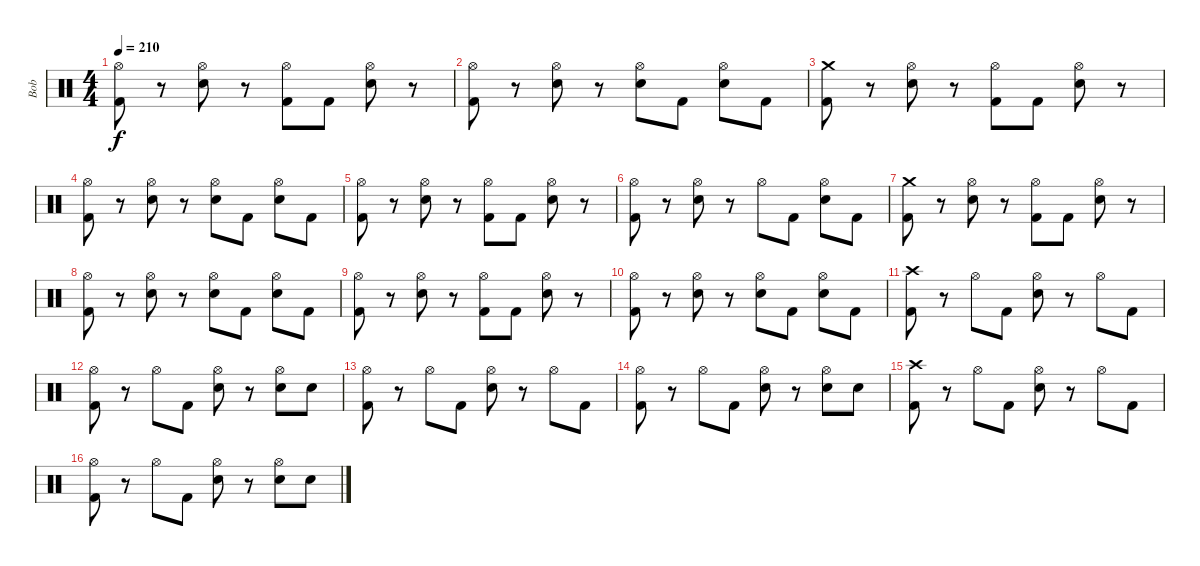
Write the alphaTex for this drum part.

\track ("Bob" "Bob") {instrument percussion}
\staff {score}
\articulation defaults
\ts (4 4)
\tempo 210
\clef neutral
\ks c
("Hi-Hat (open)" "Kick (hit) 2").8{dy f} r.8 ("Hi-Hat (open)" "Electric Snare (hit)").8 r.8 ("Hi-Hat (open)" "Kick (hit) 2").8 "Kick (hit) 2".8 ("Hi-Hat (open)" "Electric Snare (hit)").8 r.8 |
("Hi-Hat (open)" "Kick (hit) 2").8 r.8 ("Hi-Hat (open)" "Electric Snare (hit)").8 r.8 ("Hi-Hat (open)" "Electric Snare (hit)").8 "Kick (hit) 2".8 ("Hi-Hat (open)" "Electric Snare (hit)").8 "Kick (hit) 2".8 |
("Crash medium (hit)" "Kick (hit) 2").8 r.8 ("Hi-Hat (open)" "Electric Snare (hit)").8 r.8 ("Hi-Hat (open)" "Kick (hit) 2").8 "Kick (hit) 2".8 ("Hi-Hat (open)" "Electric Snare (hit)").8 r.8 |
("Hi-Hat (open)" "Kick (hit) 2").8 r.8 ("Hi-Hat (open)" "Electric Snare (hit)").8 r.8 ("Hi-Hat (open)" "Electric Snare (hit)").8 "Kick (hit) 2".8 ("Hi-Hat (open)" "Electric Snare (hit)").8 "Kick (hit) 2".8 |
("Hi-Hat (open)" "Kick (hit) 2").8 r.8 ("Hi-Hat (open)" "Electric Snare (hit)").8 r.8 ("Hi-Hat (open)" "Kick (hit) 2").8 "Kick (hit) 2".8 ("Hi-Hat (open)" "Electric Snare (hit)").8 r.8 |
("Hi-Hat (open)" "Kick (hit) 2").8 r.8 ("Hi-Hat (open)" "Electric Snare (hit)").8 r.8 "Hi-Hat (open)".8 "Kick (hit) 2".8 ("Hi-Hat (open)" "Electric Snare (hit)").8 "Kick (hit) 2".8 |
("Crash medium (hit)" "Kick (hit) 2").8 r.8 ("Hi-Hat (open)" "Electric Snare (hit)").8 r.8 ("Hi-Hat (open)" "Kick (hit) 2").8 "Kick (hit) 2".8 ("Hi-Hat (open)" "Electric Snare (hit)").8 r.8 |
("Hi-Hat (open)" "Kick (hit) 2").8 r.8 ("Hi-Hat (open)" "Electric Snare (hit)").8 r.8 ("Hi-Hat (open)" "Electric Snare (hit)").8 "Kick (hit) 2".8 ("Hi-Hat (open)" "Electric Snare (hit)").8 "Kick (hit) 2".8 |
("Hi-Hat (open)" "Kick (hit) 2").8 r.8 ("Hi-Hat (open)" "Electric Snare (hit)").8 r.8 ("Hi-Hat (open)" "Kick (hit) 2").8 "Kick (hit) 2".8 ("Hi-Hat (open)" "Electric Snare (hit)").8 r.8 |
("Hi-Hat (open)" "Kick (hit) 2").8 r.8 ("Hi-Hat (open)" "Electric Snare (hit)").8 r.8 ("Hi-Hat (open)" "Electric Snare (hit)").8 "Kick (hit) 2".8 ("Hi-Hat (open)" "Electric Snare (hit)").8 "Kick (hit) 2".8 |
("Crash high (hit)" "Kick (hit) 2").8 r.8 "Hi-Hat (open)".8 "Kick (hit) 2".8 ("Hi-Hat (open)" "Electric Snare (hit)").8 r.8 "Hi-Hat (open)".8 "Kick (hit) 2".8 |
("Hi-Hat (open)" "Kick (hit) 2").8 r.8 "Hi-Hat (open)".8 "Kick (hit) 2".8 ("Hi-Hat (open)" "Electric Snare (hit)").8 r.8 ("Hi-Hat (open)" "Electric Snare (hit)").8 "Electric Snare (hit)".8 |
("Hi-Hat (open)" "Kick (hit) 2").8 r.8 "Hi-Hat (open)".8 "Kick (hit) 2".8 ("Hi-Hat (open)" "Electric Snare (hit)").8 r.8 "Hi-Hat (open)".8 "Kick (hit) 2".8 |
("Hi-Hat (open)" "Kick (hit) 2").8 r.8 "Hi-Hat (open)".8 "Kick (hit) 2".8 ("Hi-Hat (open)" "Electric Snare (hit)").8 r.8 ("Hi-Hat (open)" "Electric Snare (hit)").8 "Electric Snare (hit)".8 |
("Crash high (hit)" "Kick (hit) 2").8 r.8 "Hi-Hat (open)".8 "Kick (hit) 2".8 ("Hi-Hat (open)" "Electric Snare (hit)").8 r.8 "Hi-Hat (open)".8 "Kick (hit) 2".8 |
("Hi-Hat (open)" "Kick (hit) 2").8 r.8 "Hi-Hat (open)".8 "Kick (hit) 2".8 ("Hi-Hat (open)" "Electric Snare (hit)").8 r.8 ("Hi-Hat (open)" "Electric Snare (hit)").8 "Electric Snare (hit)".8
